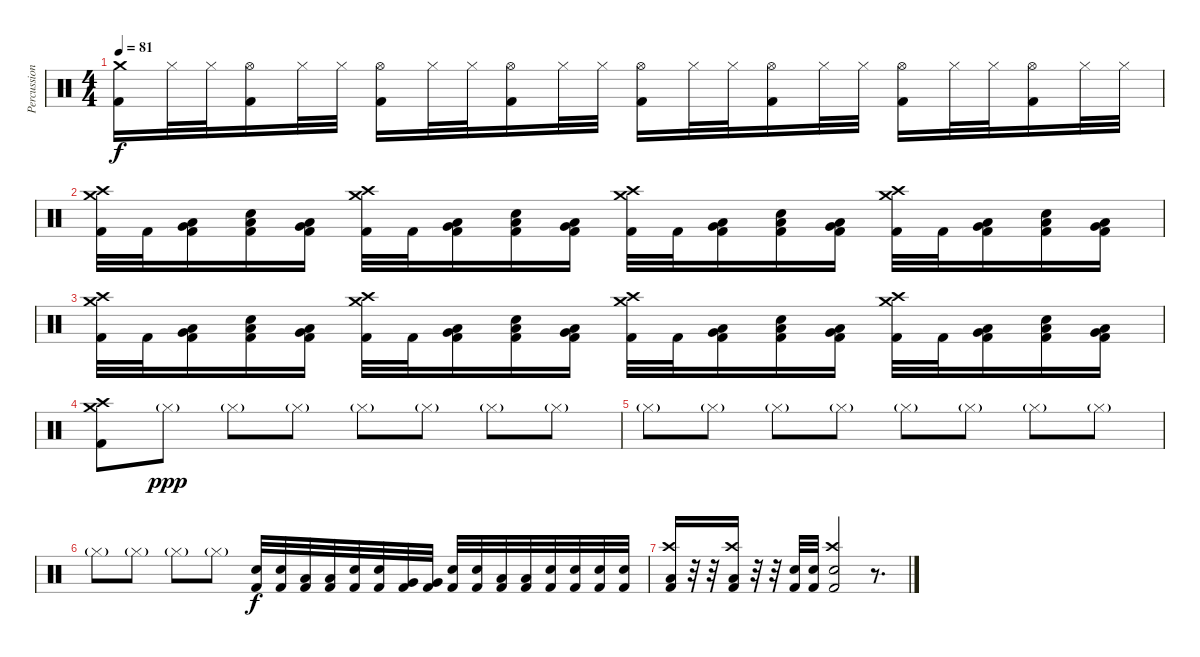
\track ("Percussion" "Percussion") {instrument percussion}
\staff {score}
\articulation defaults
\ts (4 4)
\tempo 81
\clef neutral
\ks c
("Crash medium (hit)" "Kick (hit) 2").16{dy f} "Hi-Hat (closed)".32 "Hi-Hat (closed)".32 ("Hi-Hat (open)" "Kick (hit) 2").16 "Hi-Hat (closed)".32 "Hi-Hat (closed)".32 ("Hi-Hat (open)" "Kick (hit) 2").16 "Hi-Hat (closed)".32 "Hi-Hat (closed)".32 ("Hi-Hat (open)" "Kick (hit) 2").16 "Hi-Hat (closed)".32 "Hi-Hat (closed)".32 ("Hi-Hat (open)" "Kick (hit) 2").16 "Hi-Hat (closed)".32 "Hi-Hat (closed)".32 ("Hi-Hat (open)" "Kick (hit) 2").16 "Hi-Hat (closed)".32 "Hi-Hat (closed)".32 ("Hi-Hat (open)" "Kick (hit) 2").16 "Hi-Hat (closed)".32 "Hi-Hat (closed)".32 ("Hi-Hat (open)" "Kick (hit) 2").16 "Hi-Hat (closed)".32 "Hi-Hat (closed)".32 |
("Crash high (hit)" "Crash medium (hit)" "Kick (hit) 2").32 "Kick (hit) 2".32 ("Very Low Tom (hit)" "Low Floor Tom (hit)" "Kick (hit) 2").16 ("Low Floor Tom (hit)" "Electric Snare (hit)" "Kick (hit) 2").16 ("Very Low Tom (hit)" "Low Floor Tom (hit)" "Kick (hit) 2").16 ("Crash high (hit)" "Crash medium (hit)" "Kick (hit) 2").32 "Kick (hit) 2".32 ("Very Low Tom (hit)" "Low Floor Tom (hit)" "Kick (hit) 2").16 ("Low Floor Tom (hit)" "Electric Snare (hit)" "Kick (hit) 2").16 ("Very Low Tom (hit)" "Low Floor Tom (hit)" "Kick (hit) 2").16 ("Crash high (hit)" "Crash medium (hit)" "Kick (hit) 2").32 "Kick (hit) 2".32 ("Very Low Tom (hit)" "Low Floor Tom (hit)" "Kick (hit) 2").16 ("Low Floor Tom (hit)" "Electric Snare (hit)" "Kick (hit) 2").16 ("Very Low Tom (hit)" "Low Floor Tom (hit)" "Kick (hit) 2").16 ("Crash high (hit)" "Crash medium (hit)" "Kick (hit) 2").32 "Kick (hit) 2".32 ("Very Low Tom (hit)" "Low Floor Tom (hit)" "Kick (hit) 2").16 ("Low Floor Tom (hit)" "Electric Snare (hit)" "Kick (hit) 2").16 ("Very Low Tom (hit)" "Low Floor Tom (hit)" "Kick (hit) 2").16 |
("Crash high (hit)" "Crash medium (hit)" "Kick (hit) 2").32 "Kick (hit) 2".32 ("Very Low Tom (hit)" "Low Floor Tom (hit)" "Kick (hit) 2").16 ("Low Floor Tom (hit)" "Electric Snare (hit)" "Kick (hit) 2").16 ("Very Low Tom (hit)" "Low Floor Tom (hit)" "Kick (hit) 2").16 ("Crash high (hit)" "Crash medium (hit)" "Kick (hit) 2").32 "Kick (hit) 2".32 ("Very Low Tom (hit)" "Low Floor Tom (hit)" "Kick (hit) 2").16 ("Low Floor Tom (hit)" "Electric Snare (hit)" "Kick (hit) 2").16 ("Very Low Tom (hit)" "Low Floor Tom (hit)" "Kick (hit) 2").16 ("Crash high (hit)" "Crash medium (hit)" "Kick (hit) 2").32 "Kick (hit) 2".32 ("Very Low Tom (hit)" "Low Floor Tom (hit)" "Kick (hit) 2").16 ("Low Floor Tom (hit)" "Electric Snare (hit)" "Kick (hit) 2").16 ("Very Low Tom (hit)" "Low Floor Tom (hit)" "Kick (hit) 2").16 ("Crash high (hit)" "Crash medium (hit)" "Kick (hit) 2").32 "Kick (hit) 2".32 ("Very Low Tom (hit)" "Low Floor Tom (hit)" "Kick (hit) 2").16 ("Low Floor Tom (hit)" "Electric Snare (hit)" "Kick (hit) 2").16 ("Very Low Tom (hit)" "Low Floor Tom (hit)" "Kick (hit) 2").16 |
("Crash high (hit)" "Crash medium (hit)" "Kick (hit) 2").8 "Hi-Hat (closed)"{g}.8{dy ppp volume 3} "Hi-Hat (closed)"{g}.8 "Hi-Hat (closed)"{g}.8 "Hi-Hat (closed)"{g}.8 "Hi-Hat (closed)"{g}.8 "Hi-Hat (closed)"{g}.8 "Hi-Hat (closed)"{g}.8 |
"Hi-Hat (closed)"{g}.8 "Hi-Hat (closed)"{g}.8 "Hi-Hat (closed)"{g}.8 "Hi-Hat (closed)"{g}.8 "Hi-Hat (closed)"{g}.8 "Hi-Hat (closed)"{g}.8 "Hi-Hat (closed)"{g}.8 "Hi-Hat (closed)"{g}.8 |
"Hi-Hat (closed)"{g}.8 "Hi-Hat (closed)"{g}.8 "Hi-Hat (closed)"{g}.8 "Hi-Hat (closed)"{g}.8 ("Electric Snare (hit)" "Kick (hit) 2").32{dy f volume 16} ("Electric Snare (hit)" "Kick (hit) 2").32 ("Low Tom (hit)" "Kick (hit) 2").32 ("Low Tom (hit)" "Kick (hit) 2").32 ("Electric Snare (hit)" "Kick (hit) 2").32 ("Electric Snare (hit)" "Kick (hit) 2").32 ("Very Low Tom (hit)" "Kick (hit) 2").32 ("Very Low Tom (hit)" "Kick (hit) 2").32 ("Electric Snare (hit)" "Kick (hit) 2").32 ("Electric Snare (hit)" "Kick (hit) 2").32 ("Low Floor Tom (hit)" "Kick (hit) 2").32 ("Low Floor Tom (hit)" "Kick (hit) 2").32 ("Electric Snare (hit)" "Kick (hit) 2").32 ("Electric Snare (hit)" "Kick (hit) 2").32 ("Electric Snare (hit)" "Kick (hit) 2").32 ("Electric Snare (hit)" "Kick (hit) 2").32 |
("Crash high (hit)" "Low Floor Tom (hit)" "Kick (hit) 2").16{volume 16} r.32 r.32{volume 0} ("Crash high (hit)" "Low Floor Tom (hit)" "Kick (hit) 2").16{volume 16} r.32 r.32{volume 0} ("Electric Snare (hit)" "Kick (hit) 2").32{volume 16} ("Electric Snare (hit)" "Kick (hit) 2").32 ("Crash high (hit)" "Electric Snare (hit)" "Kick (hit) 2").2 r.8{d}
